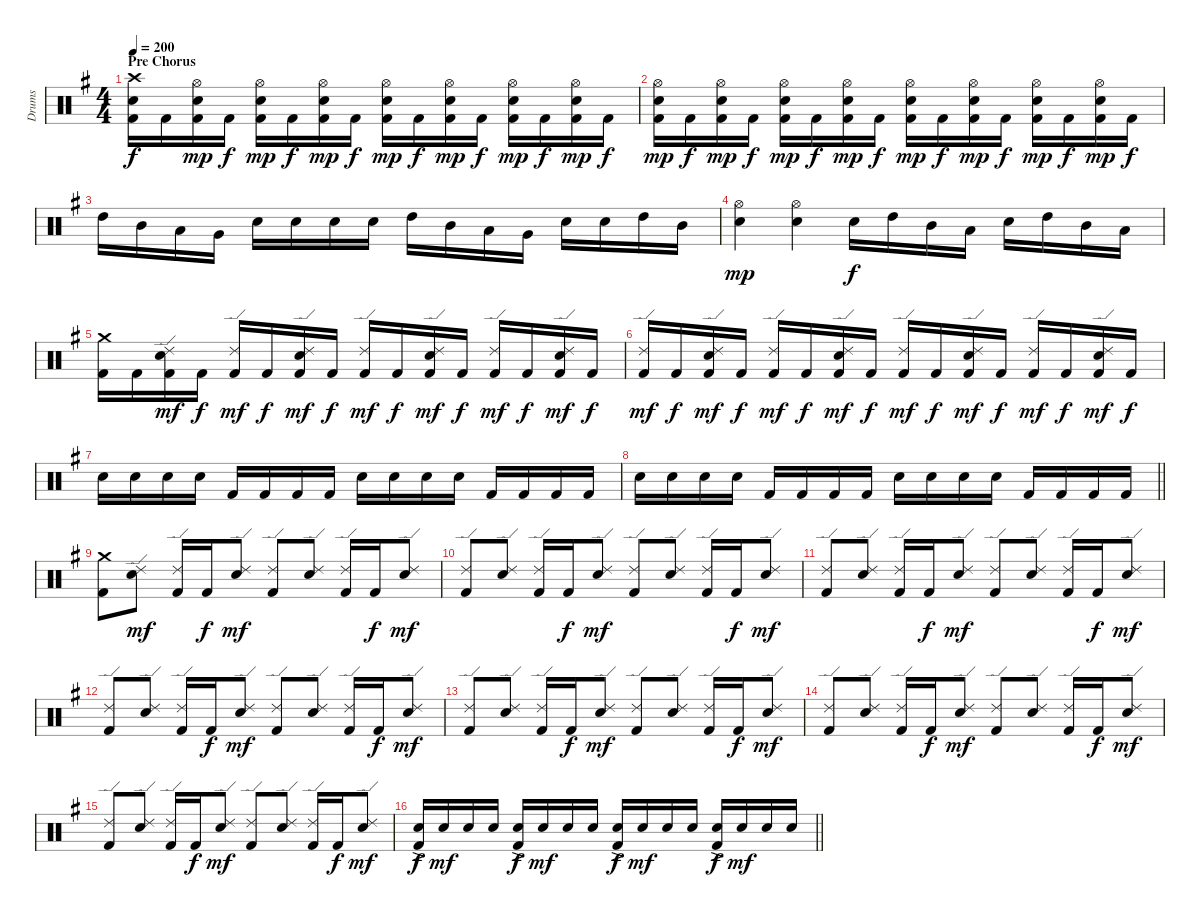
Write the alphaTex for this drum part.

\track ("Drums" "Drums") {instrument percussion}
\staff {score}
\articulation defaults
\ts (4 4)
\section ("" "Pre Chorus")
\tempo 200
\clef neutral
\ks g
("Crash high (hit)" "Snare (hit) 2" "Kick (hit) 2").16{dy f} "Kick (hit) 2".16 ("Hi-Hat (open)" "Snare (hit) 2" "Kick (hit) 2").16{dy mp} "Kick (hit) 2".16{dy f} ("Hi-Hat (open)" "Snare (hit) 2" "Kick (hit) 2").16{dy mp} "Kick (hit) 2".16{dy f} ("Hi-Hat (open)" "Snare (hit) 2" "Kick (hit) 2").16{dy mp} "Kick (hit) 2".16{dy f} ("Hi-Hat (open)" "Snare (hit) 2" "Kick (hit) 2").16{dy mp} "Kick (hit) 2".16{dy f} ("Hi-Hat (open)" "Snare (hit) 2" "Kick (hit) 2").16{dy mp} "Kick (hit) 2".16{dy f} ("Hi-Hat (open)" "Snare (hit) 2" "Kick (hit) 2").16{dy mp} "Kick (hit) 2".16{dy f} ("Hi-Hat (open)" "Snare (hit) 2" "Kick (hit) 2").16{dy mp} "Kick (hit) 2".16{dy f} |
("Hi-Hat (open)" "Snare (hit) 2" "Kick (hit) 2").16{dy mp} "Kick (hit) 2".16{dy f} ("Hi-Hat (open)" "Snare (hit) 2" "Kick (hit) 2").16{dy mp} "Kick (hit) 2".16{dy f} ("Hi-Hat (open)" "Snare (hit) 2" "Kick (hit) 2").16{dy mp} "Kick (hit) 2".16{dy f} ("Hi-Hat (open)" "Snare (hit) 2" "Kick (hit) 2").16{dy mp} "Kick (hit) 2".16{dy f} ("Hi-Hat (open)" "Snare (hit) 2" "Kick (hit) 2").16{dy mp} "Kick (hit) 2".16{dy f} ("Hi-Hat (open)" "Snare (hit) 2" "Kick (hit) 2").16{dy mp} "Kick (hit) 2".16{dy f} ("Hi-Hat (open)" "Snare (hit) 2" "Kick (hit) 2").16{dy mp} "Kick (hit) 2".16{dy f} ("Hi-Hat (open)" "Snare (hit) 2" "Kick (hit) 2").16{dy mp} "Kick (hit) 2".16{dy f} |
"High Tom (hit)".16 "Mid Tom (hit)".16 "Low Tom (hit)".16 "Very Low Tom (hit)".16 "Snare (hit) 2".16 "Snare (hit) 2".16 "Snare (hit) 2".16 "Snare (hit) 2".16 "High Tom (hit)".16 "Mid Tom (hit)".16 "Low Tom (hit)".16 "Very Low Tom (hit)".16 "Snare (hit) 2".16 "Snare (hit) 2".16 "High Tom (hit)".16 "Mid Tom (hit)".16 |
("Hi-Hat (open)" "Snare (hit) 2").4{dy mp} ("Hi-Hat (open)" "Snare (hit) 2").4 "Snare (hit) 2".16{dy f} "High Tom (hit)".16 "Mid Tom (hit)".16 "Low Tom (hit)".16 "Snare (hit) 2".16 "High Tom (hit)".16 "Mid Tom (hit)".16 "Low Tom (hit)".16 |
("Crash medium (hit)" "Kick (hit) 2").16 "Kick (hit) 2".16 ("Ride (edge) 2" "Snare (hit) 2" "Kick (hit) 2").16{dy mf} "Kick (hit) 2".16{dy f} ("Ride (edge) 2" "Kick (hit) 2").16{dy mf} "Kick (hit) 2".16{dy f} ("Ride (edge) 2" "Snare (hit) 2" "Kick (hit) 2").16{dy mf} "Kick (hit) 2".16{dy f} ("Ride (edge) 2" "Kick (hit) 2").16{dy mf} "Kick (hit) 2".16{dy f} ("Ride (edge) 2" "Snare (hit) 2" "Kick (hit) 2").16{dy mf} "Kick (hit) 2".16{dy f} ("Ride (edge) 2" "Kick (hit) 2").16{dy mf} "Kick (hit) 2".16{dy f} ("Ride (edge) 2" "Snare (hit) 2" "Kick (hit) 2").16{dy mf} "Kick (hit) 2".16{dy f} |
("Ride (edge) 2" "Kick (hit) 2").16{dy mf} "Kick (hit) 2".16{dy f} ("Ride (edge) 2" "Snare (hit) 2" "Kick (hit) 2").16{dy mf} "Kick (hit) 2".16{dy f} ("Ride (edge) 2" "Kick (hit) 2").16{dy mf} "Kick (hit) 2".16{dy f} ("Ride (edge) 2" "Snare (hit) 2" "Kick (hit) 2").16{dy mf} "Kick (hit) 2".16{dy f} ("Ride (edge) 2" "Kick (hit) 2").16{dy mf} "Kick (hit) 2".16{dy f} ("Ride (edge) 2" "Snare (hit) 2" "Kick (hit) 2").16{dy mf} "Kick (hit) 2".16{dy f} ("Ride (edge) 2" "Kick (hit) 2").16{dy mf} "Kick (hit) 2".16{dy f} ("Ride (edge) 2" "Snare (hit) 2" "Kick (hit) 2").16{dy mf} "Kick (hit) 2".16{dy f} |
"Snare (hit) 2".16 "Snare (hit) 2".16 "Snare (hit) 2".16 "Snare (hit) 2".16 "Kick (hit) 2".16 "Kick (hit) 2".16 "Kick (hit) 2".16 "Kick (hit) 2".16 "Snare (hit) 2".16 "Snare (hit) 2".16 "Snare (hit) 2".16 "Snare (hit) 2".16 "Kick (hit) 2".16 "Kick (hit) 2".16 "Kick (hit) 2".16 "Kick (hit) 2".16 |
\barLineRight lightlight "Snare (hit) 2".16 "Snare (hit) 2".16 "Snare (hit) 2".16 "Snare (hit) 2".16 "Kick (hit) 2".16 "Kick (hit) 2".16 "Kick (hit) 2".16 "Kick (hit) 2".16 "Snare (hit) 2".16 "Snare (hit) 2".16 "Snare (hit) 2".16 "Snare (hit) 2".16 "Kick (hit) 2".16 "Kick (hit) 2".16 "Kick (hit) 2".16 "Kick (hit) 2".16
|
\section ("" "")
("Crash medium (hit)" "Kick (hit) 2").8 ("Ride (edge) 2" "Snare (hit) 2").8{dy mf} ("Ride (edge) 2" "Kick (hit) 2").16 "Kick (hit) 2".16{dy f} ("Ride (edge) 2" "Snare (hit) 2").8{dy mf} ("Ride (edge) 2" "Kick (hit) 2").8 ("Ride (edge) 2" "Snare (hit) 2").8 ("Ride (edge) 2" "Kick (hit) 2").16 "Kick (hit) 2".16{dy f} ("Ride (edge) 2" "Snare (hit) 2").8{dy mf} |
("Ride (edge) 2" "Kick (hit) 2").8 ("Ride (edge) 2" "Snare (hit) 2").8 ("Ride (edge) 2" "Kick (hit) 2").16 "Kick (hit) 2".16{dy f} ("Ride (edge) 2" "Snare (hit) 2").8{dy mf} ("Ride (edge) 2" "Kick (hit) 2").8 ("Ride (edge) 2" "Snare (hit) 2").8 ("Ride (edge) 2" "Kick (hit) 2").16 "Kick (hit) 2".16{dy f} ("Ride (edge) 2" "Snare (hit) 2").8{dy mf} |
("Ride (edge) 2" "Kick (hit) 2").8 ("Ride (edge) 2" "Snare (hit) 2").8 ("Ride (edge) 2" "Kick (hit) 2").16 "Kick (hit) 2".16{dy f} ("Ride (edge) 2" "Snare (hit) 2").8{dy mf} ("Ride (edge) 2" "Kick (hit) 2").8 ("Ride (edge) 2" "Snare (hit) 2").8 ("Ride (edge) 2" "Kick (hit) 2").16 "Kick (hit) 2".16{dy f} ("Ride (edge) 2" "Snare (hit) 2").8{dy mf} |
("Ride (edge) 2" "Kick (hit) 2").8 ("Ride (edge) 2" "Snare (hit) 2").8 ("Ride (edge) 2" "Kick (hit) 2").16 "Kick (hit) 2".16{dy f} ("Ride (edge) 2" "Snare (hit) 2").8{dy mf} ("Ride (edge) 2" "Kick (hit) 2").8 ("Ride (edge) 2" "Snare (hit) 2").8 ("Ride (edge) 2" "Kick (hit) 2").16 "Kick (hit) 2".16{dy f} ("Ride (edge) 2" "Snare (hit) 2").8{dy mf} |
("Ride (edge) 2" "Kick (hit) 2").8 ("Ride (edge) 2" "Snare (hit) 2").8 ("Ride (edge) 2" "Kick (hit) 2").16 "Kick (hit) 2".16{dy f} ("Ride (edge) 2" "Snare (hit) 2").8{dy mf} ("Ride (edge) 2" "Kick (hit) 2").8 ("Ride (edge) 2" "Snare (hit) 2").8 ("Ride (edge) 2" "Kick (hit) 2").16 "Kick (hit) 2".16{dy f} ("Ride (edge) 2" "Snare (hit) 2").8{dy mf} |
("Ride (edge) 2" "Kick (hit) 2").8 ("Ride (edge) 2" "Snare (hit) 2").8 ("Ride (edge) 2" "Kick (hit) 2").16 "Kick (hit) 2".16{dy f} ("Ride (edge) 2" "Snare (hit) 2").8{dy mf} ("Ride (edge) 2" "Kick (hit) 2").8 ("Ride (edge) 2" "Snare (hit) 2").8 ("Ride (edge) 2" "Kick (hit) 2").16 "Kick (hit) 2".16{dy f} ("Ride (edge) 2" "Snare (hit) 2").8{dy mf} |
("Ride (edge) 2" "Kick (hit) 2").8 ("Ride (edge) 2" "Snare (hit) 2").8 ("Ride (edge) 2" "Kick (hit) 2").16 "Kick (hit) 2".16{dy f} ("Ride (edge) 2" "Snare (hit) 2").8{dy mf} ("Ride (edge) 2" "Kick (hit) 2").8 ("Ride (edge) 2" "Snare (hit) 2").8 ("Ride (edge) 2" "Kick (hit) 2").16 "Kick (hit) 2".16{dy f} ("Ride (edge) 2" "Snare (hit) 2").8{dy mf} |
\barLineRight lightlight
("Snare (hit) 2"{ac} "Kick (hit) 2").16{dy f} "Snare (hit) 2".16{dy mf} "Snare (hit) 2".16 "Snare (hit) 2".16 ("Snare (hit) 2"{ac} "Kick (hit) 2").16{dy f} "Snare (hit) 2".16{dy mf} "Snare (hit) 2".16 "Snare (hit) 2".16 ("Snare (hit) 2"{ac} "Kick (hit) 2").16{dy f} "Snare (hit) 2".16{dy mf} "Snare (hit) 2".16 "Snare (hit) 2".16 ("Snare (hit) 2"{ac} "Kick (hit) 2").16{dy f} "Snare (hit) 2".16{dy mf} "Snare (hit) 2".16 "Snare (hit) 2".16
